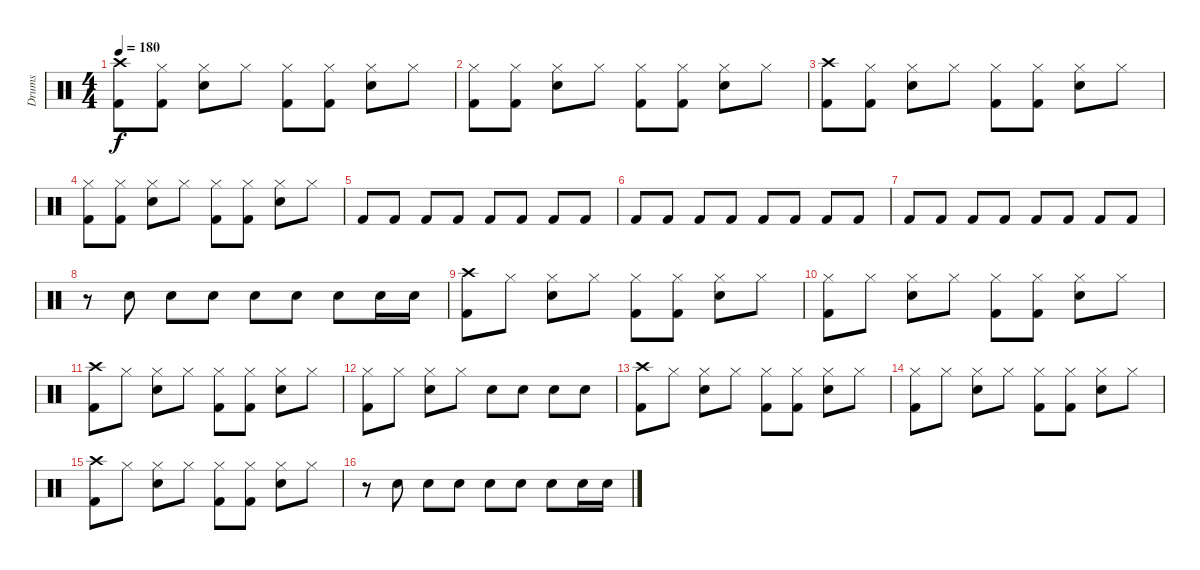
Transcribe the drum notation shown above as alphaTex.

\track ("Drums" "Drums") {instrument percussion}
\staff {score}
\articulation defaults
\ts (4 4)
\tempo 180
\clef neutral
\ks c
("Crash high (hit)" "Kick (hit) 2").8{dy f} ("Hi-Hat (closed)" "Kick (hit) 2").8 ("Hi-Hat (closed)" "Snare (hit) 2").8 "Hi-Hat (closed)".8 ("Hi-Hat (closed)" "Kick (hit) 2").8 ("Hi-Hat (closed)" "Kick (hit) 2").8 ("Hi-Hat (closed)" "Snare (hit) 2").8 "Hi-Hat (closed)".8 |
("Hi-Hat (closed)" "Kick (hit) 2").8 ("Hi-Hat (closed)" "Kick (hit) 2").8 ("Hi-Hat (closed)" "Snare (hit) 2").8 "Hi-Hat (closed)".8 ("Hi-Hat (closed)" "Kick (hit) 2").8 ("Hi-Hat (closed)" "Kick (hit) 2").8 ("Hi-Hat (closed)" "Snare (hit) 2").8 "Hi-Hat (closed)".8 |
("Crash high (hit)" "Kick (hit) 2").8 ("Hi-Hat (closed)" "Kick (hit) 2").8 ("Hi-Hat (closed)" "Snare (hit) 2").8 "Hi-Hat (closed)".8 ("Hi-Hat (closed)" "Kick (hit) 2").8 ("Hi-Hat (closed)" "Kick (hit) 2").8 ("Hi-Hat (closed)" "Snare (hit) 2").8 "Hi-Hat (closed)".8 |
("Hi-Hat (closed)" "Kick (hit) 2").8 ("Hi-Hat (closed)" "Kick (hit) 2").8 ("Hi-Hat (closed)" "Snare (hit) 2").8 "Hi-Hat (closed)".8 ("Hi-Hat (closed)" "Kick (hit) 2").8 ("Hi-Hat (closed)" "Kick (hit) 2").8 ("Hi-Hat (closed)" "Snare (hit) 2").8 "Hi-Hat (closed)".8 |
"Kick (hit) 2".8 "Kick (hit) 2".8 "Kick (hit) 2".8 "Kick (hit) 2".8 "Kick (hit) 2".8 "Kick (hit) 2".8 "Kick (hit) 2".8 "Kick (hit) 2".8 |
"Kick (hit) 2".8 "Kick (hit) 2".8 "Kick (hit) 2".8 "Kick (hit) 2".8 "Kick (hit) 2".8 "Kick (hit) 2".8 "Kick (hit) 2".8 "Kick (hit) 2".8 |
"Kick (hit) 2".8 "Kick (hit) 2".8 "Kick (hit) 2".8 "Kick (hit) 2".8 "Kick (hit) 2".8 "Kick (hit) 2".8 "Kick (hit) 2".8 "Kick (hit) 2".8 |
r.8 "Snare (hit) 2".8 "Snare (hit) 2".8 "Snare (hit) 2".8 "Snare (hit) 2".8 "Snare (hit) 2".8 "Snare (hit) 2".8 "Snare (hit) 2".16 "Snare (hit) 2".16 |
("Crash high (hit)" "Kick (hit) 2").8 "Hi-Hat (closed)".8 ("Hi-Hat (closed)" "Snare (hit) 2").8 "Hi-Hat (closed)".8 ("Hi-Hat (closed)" "Kick (hit) 2").8 ("Hi-Hat (closed)" "Kick (hit) 2").8 ("Hi-Hat (closed)" "Snare (hit) 2").8 "Hi-Hat (closed)".8 |
("Hi-Hat (closed)" "Kick (hit) 2").8 "Hi-Hat (closed)".8 ("Hi-Hat (closed)" "Snare (hit) 2").8 "Hi-Hat (closed)".8 ("Hi-Hat (closed)" "Kick (hit) 2").8 ("Hi-Hat (closed)" "Kick (hit) 2").8 ("Hi-Hat (closed)" "Snare (hit) 2").8 "Hi-Hat (closed)".8 |
("Crash high (hit)" "Kick (hit) 2").8 "Hi-Hat (closed)".8 ("Hi-Hat (closed)" "Snare (hit) 2").8 "Hi-Hat (closed)".8 ("Hi-Hat (closed)" "Kick (hit) 2").8 ("Hi-Hat (closed)" "Kick (hit) 2").8 ("Hi-Hat (closed)" "Snare (hit) 2").8 "Hi-Hat (closed)".8 |
("Hi-Hat (closed)" "Kick (hit) 2").8 "Hi-Hat (closed)".8 ("Hi-Hat (closed)" "Snare (hit) 2").8 "Hi-Hat (closed)".8 "Snare (hit) 2".8 "Snare (hit) 2".8 "Snare (hit) 2".8 "Snare (hit) 2".8 |
("Crash high (hit)" "Kick (hit) 2").8 "Hi-Hat (closed)".8 ("Hi-Hat (closed)" "Snare (hit) 2").8 "Hi-Hat (closed)".8 ("Hi-Hat (closed)" "Kick (hit) 2").8 ("Hi-Hat (closed)" "Kick (hit) 2").8 ("Hi-Hat (closed)" "Snare (hit) 2").8 "Hi-Hat (closed)".8 |
("Hi-Hat (closed)" "Kick (hit) 2").8 "Hi-Hat (closed)".8 ("Hi-Hat (closed)" "Snare (hit) 2").8 "Hi-Hat (closed)".8 ("Hi-Hat (closed)" "Kick (hit) 2").8 ("Hi-Hat (closed)" "Kick (hit) 2").8 ("Hi-Hat (closed)" "Snare (hit) 2").8 "Hi-Hat (closed)".8 |
("Crash high (hit)" "Kick (hit) 2").8 "Hi-Hat (closed)".8 ("Hi-Hat (closed)" "Snare (hit) 2").8 "Hi-Hat (closed)".8 ("Hi-Hat (closed)" "Kick (hit) 2").8 ("Hi-Hat (closed)" "Kick (hit) 2").8 ("Hi-Hat (closed)" "Snare (hit) 2").8 "Hi-Hat (closed)".8 |
r.8 "Snare (hit) 2".8 "Snare (hit) 2".8 "Snare (hit) 2".8 "Snare (hit) 2".8 "Snare (hit) 2".8 "Snare (hit) 2".8 "Snare (hit) 2".16 "Snare (hit) 2".16
